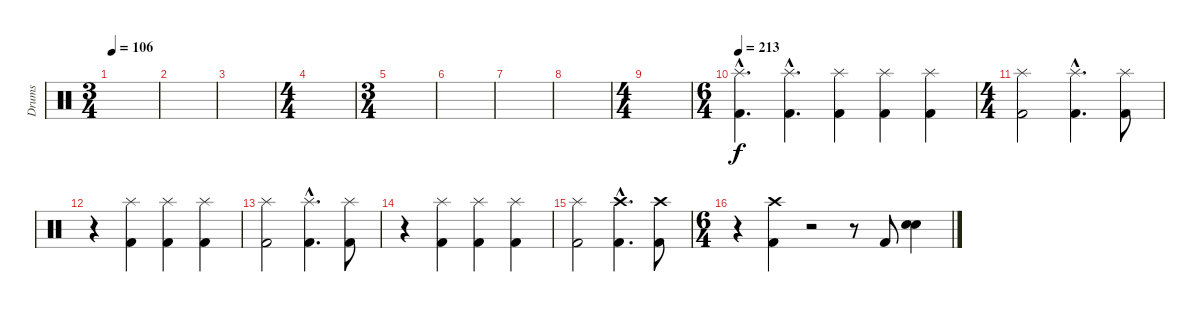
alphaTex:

\track ("Drums" "Drums") {instrument percussion}
\staff {score}
\articulation defaults
\ts (3 4)
\tempo 106
\clef neutral
\ks c
|
|
|
\ts (4 4)
|
\ts (3 4)
|
|
|
|
\ts (4 4)
|
\ts (6 4)
\tempo 213
("Kick (hit) 2"{hac} "Splash (hit)"{hac}).4{d} ("Kick (hit) 2"{hac} "Splash (hit)"{hac}).4{d} ("Kick (hit) 2" "Splash (hit)").4 ("Kick (hit) 2" "Splash (hit)").4 ("Kick (hit) 2" "Splash (hit)").4 |
\ts (4 4)
("Kick (hit) 2" "Splash (hit)").2 ("Kick (hit) 2"{hac} "Splash (hit)"{hac}).4{d} ("Kick (hit) 2" "Splash (hit)").8 |
r.4 ("Kick (hit) 2" "Splash (hit)").4 ("Kick (hit) 2" "Splash (hit)").4 ("Kick (hit) 2" "Splash (hit)").4 |
("Kick (hit) 2" "Splash (hit)").2 ("Kick (hit) 2"{hac} "Splash (hit)"{hac}).4{d} ("Kick (hit) 2" "Splash (hit)").8 |
r.4 ("Kick (hit) 2" "Splash (hit)").4 ("Kick (hit) 2" "Splash (hit)").4 ("Kick (hit) 2" "Splash (hit)").4 |
("Kick (hit) 2" "Splash (hit)").2 ("Kick (hit) 2"{hac} "Crash high (hit)"{hac}).4{d} ("Kick (hit) 2" "Crash high (hit)").8 |
\ts (6 4)
r.4 ("Kick (hit) 2" "Crash high (hit)").4 r.2 r.8 "Kick (hit) 2".8 ("Snare (hit) 2" "Snare (hit) 2").4
